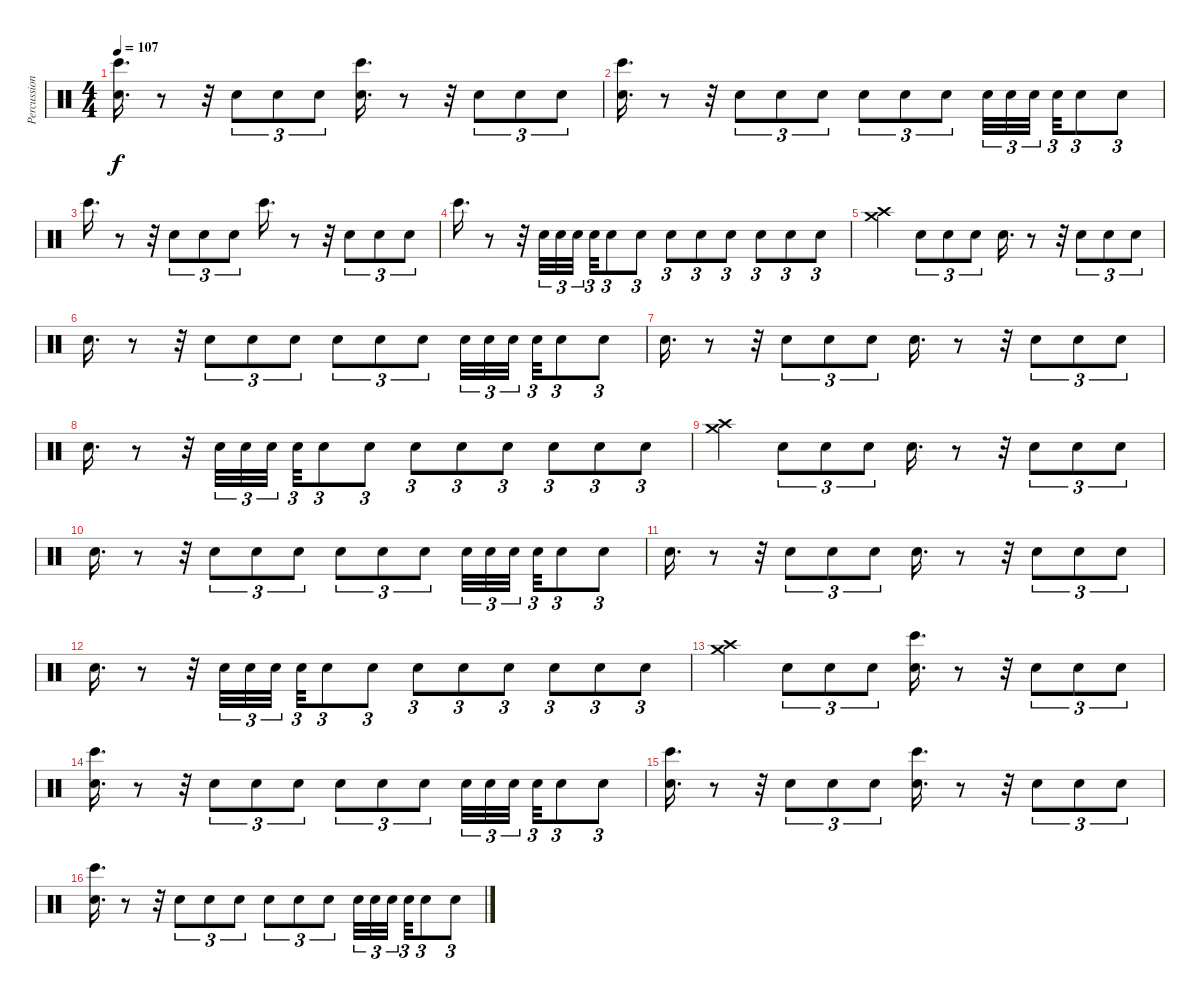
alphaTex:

\track ("Percussion" "Percussion") {instrument percussion}
\staff {score}
\articulation defaults
\ts (4 4)
\tempo 107
\clef neutral
\ks c
("Hand Clap (hit)" "Bongo High (hit)").16{d dy f} r.8 r.32 "Electric Snare (hit)".8{tu (3 2)} "Electric Snare (hit)".8{tu (3 2)} "Electric Snare (hit)".8{tu (3 2)} ("Hand Clap (hit)" "Bongo High (hit)").16{d} r.8 r.32 "Electric Snare (hit)".8{tu (3 2)} "Electric Snare (hit)".8{tu (3 2)} "Electric Snare (hit)".8{tu (3 2)} |
("Hand Clap (hit)" "Bongo High (hit)").16{d} r.8 r.32 "Electric Snare (hit)".8{tu (3 2)} "Electric Snare (hit)".8{tu (3 2)} "Electric Snare (hit)".8{tu (3 2)} "Electric Snare (hit)".8{tu (3 2)} "Electric Snare (hit)".8{tu (3 2)} "Electric Snare (hit)".8{tu (3 2)} "Electric Snare (hit)".32{tu (3 2)} "Electric Snare (hit)".32{tu (3 2)} "Electric Snare (hit)".32{tu (3 2) beam splitsecondary} "Electric Snare (hit)".32{tu (3 2)} "Electric Snare (hit)".8{tu (3 2)} "Electric Snare (hit)".8{tu (3 2)} |
"Bongo High (hit)".16{d} r.8 r.32 "Electric Snare (hit)".8{tu (3 2)} "Electric Snare (hit)".8{tu (3 2)} "Electric Snare (hit)".8{tu (3 2)} "Bongo High (hit)".16{d} r.8 r.32 "Electric Snare (hit)".8{tu (3 2)} "Electric Snare (hit)".8{tu (3 2)} "Electric Snare (hit)".8{tu (3 2)} |
"Bongo High (hit)".16{d} r.8 r.32 "Electric Snare (hit)".32{tu (3 2)} "Electric Snare (hit)".32{tu (3 2)} "Electric Snare (hit)".32{tu (3 2) beam splitsecondary} "Electric Snare (hit)".32{tu (3 2)} "Electric Snare (hit)".8{tu (3 2)} "Electric Snare (hit)".8{tu (3 2)} "Electric Snare (hit)".8{tu (3 2)} "Electric Snare (hit)".8{tu (3 2)} "Electric Snare (hit)".8{tu (3 2)} "Electric Snare (hit)".8{tu (3 2)} "Electric Snare (hit)".8{tu (3 2)} "Electric Snare (hit)".8{tu (3 2)} |
("Crash medium (hit)" "Crash high (hit)").4 "Electric Snare (hit)".8{tu (3 2)} "Electric Snare (hit)".8{tu (3 2)} "Electric Snare (hit)".8{tu (3 2)} "Hand Clap (hit)".16{d} r.8 r.32 "Electric Snare (hit)".8{tu (3 2)} "Electric Snare (hit)".8{tu (3 2)} "Electric Snare (hit)".8{tu (3 2)} |
"Hand Clap (hit)".16{d} r.8 r.32 "Electric Snare (hit)".8{tu (3 2)} "Electric Snare (hit)".8{tu (3 2)} "Electric Snare (hit)".8{tu (3 2)} "Electric Snare (hit)".8{tu (3 2)} "Electric Snare (hit)".8{tu (3 2)} "Electric Snare (hit)".8{tu (3 2)} "Electric Snare (hit)".32{tu (3 2)} "Electric Snare (hit)".32{tu (3 2)} "Electric Snare (hit)".32{tu (3 2) beam splitsecondary} "Electric Snare (hit)".32{tu (3 2)} "Electric Snare (hit)".8{tu (3 2)} "Electric Snare (hit)".8{tu (3 2)} |
"Hand Clap (hit)".16{d} r.8 r.32 "Electric Snare (hit)".8{tu (3 2)} "Electric Snare (hit)".8{tu (3 2)} "Electric Snare (hit)".8{tu (3 2)} "Hand Clap (hit)".16{d} r.8 r.32 "Electric Snare (hit)".8{tu (3 2)} "Electric Snare (hit)".8{tu (3 2)} "Electric Snare (hit)".8{tu (3 2)} |
"Hand Clap (hit)".16{d} r.8 r.32 "Electric Snare (hit)".32{tu (3 2)} "Electric Snare (hit)".32{tu (3 2)} "Electric Snare (hit)".32{tu (3 2) beam splitsecondary} "Electric Snare (hit)".32{tu (3 2)} "Electric Snare (hit)".8{tu (3 2)} "Electric Snare (hit)".8{tu (3 2)} "Electric Snare (hit)".8{tu (3 2)} "Electric Snare (hit)".8{tu (3 2)} "Electric Snare (hit)".8{tu (3 2)} "Electric Snare (hit)".8{tu (3 2)} "Electric Snare (hit)".8{tu (3 2)} "Electric Snare (hit)".8{tu (3 2)} |
("Crash high (hit)" "Crash medium (hit)").4 "Electric Snare (hit)".8{tu (3 2)} "Electric Snare (hit)".8{tu (3 2)} "Electric Snare (hit)".8{tu (3 2)} "Hand Clap (hit)".16{d} r.8 r.32 "Electric Snare (hit)".8{tu (3 2)} "Electric Snare (hit)".8{tu (3 2)} "Electric Snare (hit)".8{tu (3 2)} |
"Hand Clap (hit)".16{d} r.8 r.32 "Electric Snare (hit)".8{tu (3 2)} "Electric Snare (hit)".8{tu (3 2)} "Electric Snare (hit)".8{tu (3 2)} "Electric Snare (hit)".8{tu (3 2)} "Electric Snare (hit)".8{tu (3 2)} "Electric Snare (hit)".8{tu (3 2)} "Electric Snare (hit)".32{tu (3 2)} "Electric Snare (hit)".32{tu (3 2)} "Electric Snare (hit)".32{tu (3 2) beam splitsecondary} "Electric Snare (hit)".32{tu (3 2)} "Electric Snare (hit)".8{tu (3 2)} "Electric Snare (hit)".8{tu (3 2)} |
"Hand Clap (hit)".16{d} r.8 r.32 "Electric Snare (hit)".8{tu (3 2)} "Electric Snare (hit)".8{tu (3 2)} "Electric Snare (hit)".8{tu (3 2)} "Hand Clap (hit)".16{d} r.8 r.32 "Electric Snare (hit)".8{tu (3 2)} "Electric Snare (hit)".8{tu (3 2)} "Electric Snare (hit)".8{tu (3 2)} |
"Hand Clap (hit)".16{d} r.8 r.32 "Electric Snare (hit)".32{tu (3 2)} "Electric Snare (hit)".32{tu (3 2)} "Electric Snare (hit)".32{tu (3 2) beam splitsecondary} "Electric Snare (hit)".32{tu (3 2)} "Electric Snare (hit)".8{tu (3 2)} "Electric Snare (hit)".8{tu (3 2)} "Electric Snare (hit)".8{tu (3 2)} "Electric Snare (hit)".8{tu (3 2)} "Electric Snare (hit)".8{tu (3 2)} "Electric Snare (hit)".8{tu (3 2)} "Electric Snare (hit)".8{tu (3 2)} "Electric Snare (hit)".8{tu (3 2)} |
("Crash high (hit)" "Crash medium (hit)").4 "Electric Snare (hit)".8{tu (3 2)} "Electric Snare (hit)".8{tu (3 2)} "Electric Snare (hit)".8{tu (3 2)} ("Hand Clap (hit)" "Bongo High (hit)").16{d} r.8 r.32 "Electric Snare (hit)".8{tu (3 2)} "Electric Snare (hit)".8{tu (3 2)} "Electric Snare (hit)".8{tu (3 2)} |
("Hand Clap (hit)" "Bongo High (hit)").16{d} r.8 r.32 "Electric Snare (hit)".8{tu (3 2)} "Electric Snare (hit)".8{tu (3 2)} "Electric Snare (hit)".8{tu (3 2)} "Electric Snare (hit)".8{tu (3 2)} "Electric Snare (hit)".8{tu (3 2)} "Electric Snare (hit)".8{tu (3 2)} "Electric Snare (hit)".32{tu (3 2)} "Electric Snare (hit)".32{tu (3 2)} "Electric Snare (hit)".32{tu (3 2) beam splitsecondary} "Electric Snare (hit)".32{tu (3 2)} "Electric Snare (hit)".8{tu (3 2)} "Electric Snare (hit)".8{tu (3 2)} |
("Hand Clap (hit)" "Bongo High (hit)").16{d} r.8 r.32 "Electric Snare (hit)".8{tu (3 2)} "Electric Snare (hit)".8{tu (3 2)} "Electric Snare (hit)".8{tu (3 2)} ("Hand Clap (hit)" "Bongo High (hit)").16{d} r.8 r.32 "Electric Snare (hit)".8{tu (3 2)} "Electric Snare (hit)".8{tu (3 2)} "Electric Snare (hit)".8{tu (3 2)} |
("Hand Clap (hit)" "Bongo High (hit)").16{d} r.8 r.32 "Electric Snare (hit)".8{tu (3 2)} "Electric Snare (hit)".8{tu (3 2)} "Electric Snare (hit)".8{tu (3 2)} "Electric Snare (hit)".8{tu (3 2)} "Electric Snare (hit)".8{tu (3 2)} "Electric Snare (hit)".8{tu (3 2)} "Electric Snare (hit)".32{tu (3 2)} "Electric Snare (hit)".32{tu (3 2)} "Electric Snare (hit)".32{tu (3 2) beam splitsecondary} "Electric Snare (hit)".32{tu (3 2)} "Electric Snare (hit)".8{tu (3 2)} "Electric Snare (hit)".8{tu (3 2)}
